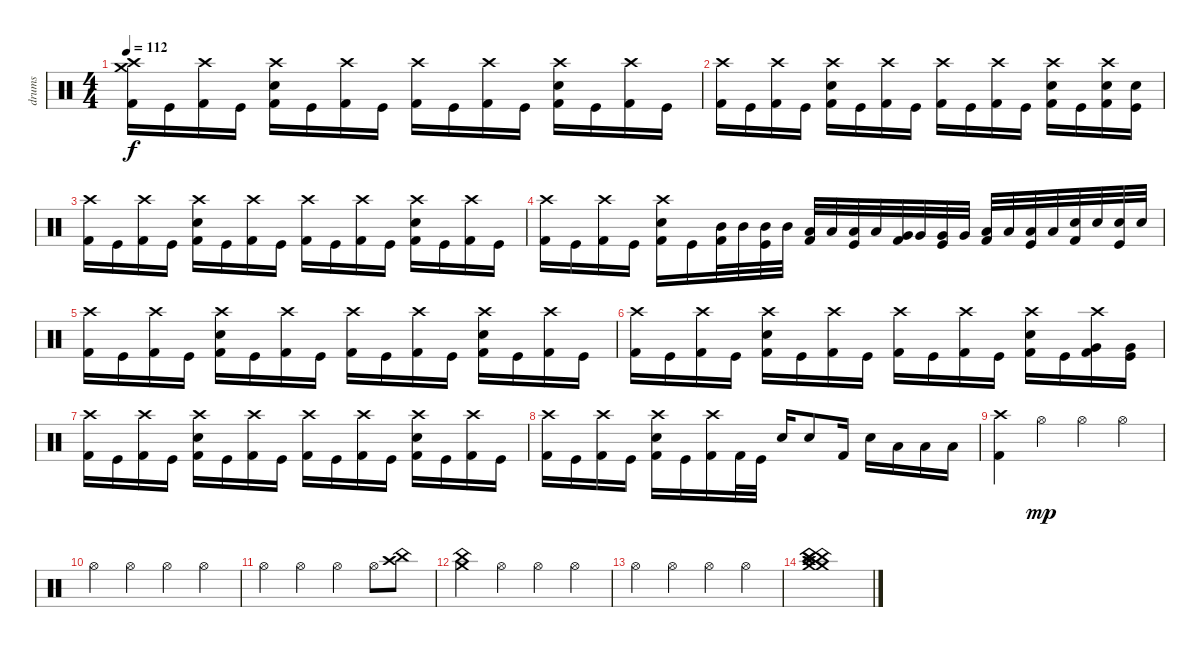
\track ("drums" "drums") {instrument percussion}
\staff {score}
\articulation defaults
\ts (4 4)
\tempo 112
\clef neutral
\ks c
("Crash high (hit)" "Crash medium (hit)" "Kick (hit) 2").16{dy f} "Kick (hit)".16 ("Crash high (hit)" "Kick (hit) 2").16 "Kick (hit)".16 ("Crash high (hit)" "Electric Snare (hit)" "Kick (hit) 2").16 "Kick (hit)".16 ("Crash high (hit)" "Kick (hit) 2").16 "Kick (hit)".16 ("Crash high (hit)" "Kick (hit) 2").16 "Kick (hit)".16 ("Crash high (hit)" "Kick (hit) 2").16 "Kick (hit)".16 ("Crash high (hit)" "Electric Snare (hit)" "Kick (hit) 2").16 "Kick (hit)".16 ("Crash high (hit)" "Kick (hit) 2").16 "Kick (hit)".16 |
("Crash high (hit)" "Kick (hit) 2").16 "Kick (hit)".16 ("Crash high (hit)" "Kick (hit) 2").16 "Kick (hit)".16 ("Crash high (hit)" "Electric Snare (hit)" "Kick (hit) 2").16 "Kick (hit)".16 ("Crash high (hit)" "Kick (hit) 2").16 "Kick (hit)".16 ("Crash high (hit)" "Kick (hit) 2").16 "Kick (hit)".16 ("Crash high (hit)" "Kick (hit) 2").16 "Kick (hit)".16 ("Crash high (hit)" "Electric Snare (hit)" "Kick (hit) 2").16 "Kick (hit)".16 ("Crash high (hit)" "Electric Snare (hit)" "Kick (hit) 2").16 ("Electric Snare (hit)" "Kick (hit)").16 |
("Crash high (hit)" "Kick (hit) 2").16 "Kick (hit)".16 ("Crash high (hit)" "Kick (hit) 2").16 "Kick (hit)".16 ("Crash high (hit)" "Electric Snare (hit)" "Kick (hit) 2").16 "Kick (hit)".16 ("Crash high (hit)" "Kick (hit) 2").16 "Kick (hit)".16 ("Crash high (hit)" "Kick (hit) 2").16 "Kick (hit)".16 ("Crash high (hit)" "Kick (hit) 2").16 "Kick (hit)".16 ("Crash high (hit)" "Electric Snare (hit)" "Kick (hit) 2").16 "Kick (hit)".16 ("Crash high (hit)" "Kick (hit) 2").16 "Kick (hit)".16 |
("Crash high (hit)" "Kick (hit) 2").16 "Kick (hit)".16 ("Crash high (hit)" "Kick (hit) 2").16 "Kick (hit)".16 ("Crash high (hit)" "Electric Snare (hit)" "Kick (hit) 2").16 "Kick (hit)".16 ("Mid Tom (hit)" "Kick (hit) 2").32 "Mid Tom (hit)".32 ("Mid Tom (hit)" "Kick (hit)").32 "Mid Tom (hit)".32 ("Low Tom (hit)" "Kick (hit) 2").32 "Low Tom (hit)".32 ("Low Tom (hit)" "Kick (hit)").32 "Low Tom (hit)".32 ("Very Low Tom (hit)" "Kick (hit) 2").32 "Very Low Tom (hit)".32 ("Very Low Tom (hit)" "Kick (hit)").32 "Very Low Tom (hit)".32 ("Low Floor Tom (hit)" "Kick (hit) 2").32 "Low Floor Tom (hit)".32 ("Low Floor Tom (hit)" "Kick (hit)").32 "Low Floor Tom (hit)".32 ("Electric Snare (hit)" "Kick (hit) 2").32 "Electric Snare (hit)".32 ("Electric Snare (hit)" "Kick (hit)").32 "Electric Snare (hit)".32 |
("Crash high (hit)" "Kick (hit) 2").16 "Kick (hit)".16 ("Crash high (hit)" "Kick (hit) 2").16 "Kick (hit)".16 ("Crash high (hit)" "Electric Snare (hit)" "Kick (hit) 2").16 "Kick (hit)".16 ("Crash high (hit)" "Kick (hit) 2").16 "Kick (hit)".16 ("Crash high (hit)" "Kick (hit) 2").16 "Kick (hit)".16 ("Crash high (hit)" "Kick (hit) 2").16 "Kick (hit)".16 ("Crash high (hit)" "Electric Snare (hit)" "Kick (hit) 2").16 "Kick (hit)".16 ("Crash high (hit)" "Kick (hit) 2").16 "Kick (hit)".16 |
("Crash high (hit)" "Kick (hit) 2").16 "Kick (hit)".16 ("Crash high (hit)" "Kick (hit) 2").16 "Kick (hit)".16 ("Crash high (hit)" "Electric Snare (hit)" "Kick (hit) 2").16 "Kick (hit)".16 ("Crash high (hit)" "Kick (hit) 2").16 "Kick (hit)".16 ("Crash high (hit)" "Kick (hit) 2").16 "Kick (hit)".16 ("Crash high (hit)" "Kick (hit) 2").16 "Kick (hit)".16 ("Crash high (hit)" "Electric Snare (hit)" "Kick (hit) 2").16 "Kick (hit)".16 ("Crash high (hit)" "Very Low Tom (hit)" "Kick (hit) 2").16 ("Very Low Tom (hit)" "Kick (hit)").16 |
("Crash high (hit)" "Kick (hit) 2").16 "Kick (hit)".16 ("Crash high (hit)" "Kick (hit) 2").16 "Kick (hit)".16 ("Crash high (hit)" "Electric Snare (hit)" "Kick (hit) 2").16 "Kick (hit)".16 ("Crash high (hit)" "Kick (hit) 2").16 "Kick (hit)".16 ("Crash high (hit)" "Kick (hit) 2").16 "Kick (hit)".16 ("Crash high (hit)" "Kick (hit) 2").16 "Kick (hit)".16 ("Crash high (hit)" "Electric Snare (hit)" "Kick (hit) 2").16 "Kick (hit)".16 ("Crash high (hit)" "Kick (hit) 2").16 "Kick (hit)".16 |
("Crash high (hit)" "Kick (hit) 2").16 "Kick (hit)".16 ("Crash high (hit)" "Kick (hit) 2").16 "Kick (hit)".16 ("Crash high (hit)" "Electric Snare (hit)" "Kick (hit) 2").16 "Kick (hit)".16 ("Crash high (hit)" "Kick (hit) 2").16 "Kick (hit) 2".32 "Kick (hit)".32 "Electric Snare (hit)".16 "Electric Snare (hit)".8 "Kick (hit) 2".16 "Electric Snare (hit)".16 "Low Tom (hit)".16 "Low Tom (hit)".16 "Low Floor Tom (hit)".16 |
("Crash high (hit)" "Kick (hit) 2").4 "Hi-Hat (open)".4{dy mp} "Hi-Hat (open)".4 "Hi-Hat (open)".4 |
"Hi-Hat (open)".4 "Hi-Hat (open)".4 "Hi-Hat (open)".4 "Hi-Hat (open)".4 |
"Hi-Hat (open)".4 "Hi-Hat (open)".4 "Hi-Hat (open)".4 "Hi-Hat (open)".8 ("Crash high (hit)" "China (hit)").8 |
("Crash medium (hit)" "China (hit)").4 "Hi-Hat (open)".4 "Hi-Hat (open)".4 "Hi-Hat (open)".4 |
"Hi-Hat (open)".4 "Hi-Hat (open)".4 "Hi-Hat (open)".4 "Hi-Hat (open)".4 |
("Crash high (hit)" "Crash medium (hit)" "China (hit)" "Crash medium (hit)" "China (hit)" "China (hit)").1
